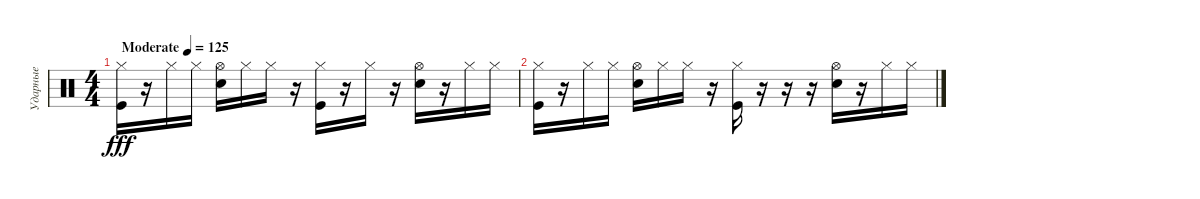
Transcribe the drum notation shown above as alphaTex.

\track ("Ударные" "Ударные") {instrument percussion}
\staff {score}
\articulation defaults
\ts (4 4)
\tempo (125 "Moderate")
\clef neutral
\ks c
("Hi-Hat (closed)" "Kick (hit)").16{dy fff} r.16 "Hi-Hat (closed)".16 "Hi-Hat (closed)".16 ("Hi-Hat (open)" "Electric Snare (hit)").16 "Hi-Hat (closed)".16 "Hi-Hat (closed)".16 r.16 ("Hi-Hat (closed)" "Kick (hit)").16 r.16 "Hi-Hat (closed)".16 r.16 ("Hi-Hat (open)" "Electric Snare (hit)").16 r.16 "Hi-Hat (closed)".16 "Hi-Hat (closed)".16 |
("Hi-Hat (closed)" "Kick (hit)").16 r.16 "Hi-Hat (closed)".16 "Hi-Hat (closed)".16 ("Hi-Hat (open)" "Electric Snare (hit)").16 "Hi-Hat (closed)".16 "Hi-Hat (closed)".16 r.16 ("Hi-Hat (closed)" "Kick (hit)").16 r.16 r.16 r.16 ("Hi-Hat (open)" "Electric Snare (hit)").16 r.16 "Hi-Hat (closed)".16 "Hi-Hat (closed)".16
